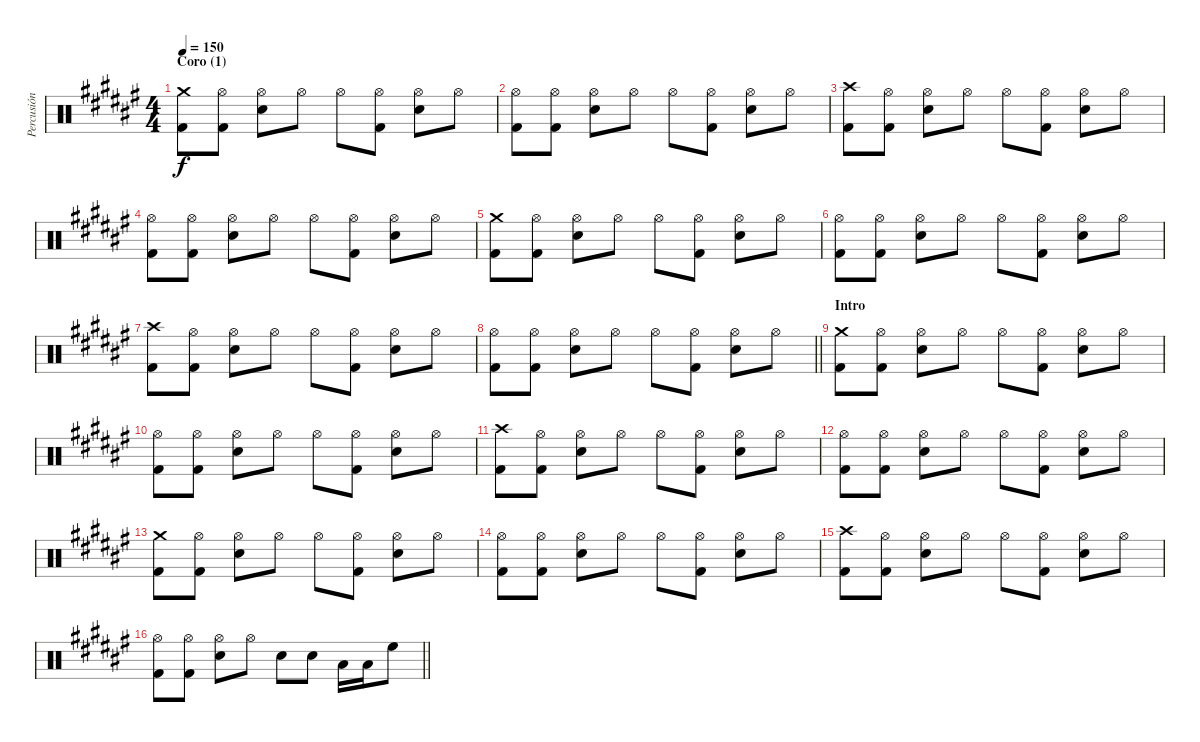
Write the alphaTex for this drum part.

\track ("Percusión" "Percusión") {instrument percussion}
\staff {score}
\articulation defaults
\ts (4 4)
\section ("" "Coro (1)")
\tempo 150
\clef neutral
\ks d#minor
("Crash medium (hit)" "Kick (hit) 2").8{dy f} ("Hi-Hat (open)" "Kick (hit) 2").8 ("Hi-Hat (open)" "Electric Snare (hit)").8 "Hi-Hat (open)".8 "Hi-Hat (open)".8 ("Hi-Hat (open)" "Kick (hit) 2").8 ("Hi-Hat (open)" "Electric Snare (hit)").8 "Hi-Hat (open)".8 |
("Hi-Hat (open)" "Kick (hit) 2").8 ("Hi-Hat (open)" "Kick (hit) 2").8 ("Hi-Hat (open)" "Electric Snare (hit)").8 "Hi-Hat (open)".8 "Hi-Hat (open)".8 ("Hi-Hat (open)" "Kick (hit) 2").8 ("Hi-Hat (open)" "Electric Snare (hit)").8 "Hi-Hat (open)".8 |
("Crash high (hit)" "Kick (hit) 2").8 ("Hi-Hat (open)" "Kick (hit) 2").8 ("Hi-Hat (open)" "Electric Snare (hit)").8 "Hi-Hat (open)".8 "Hi-Hat (open)".8 ("Hi-Hat (open)" "Kick (hit) 2").8 ("Hi-Hat (open)" "Electric Snare (hit)").8 "Hi-Hat (open)".8 |
("Hi-Hat (open)" "Kick (hit) 2").8 ("Hi-Hat (open)" "Kick (hit) 2").8 ("Hi-Hat (open)" "Electric Snare (hit)").8 "Hi-Hat (open)".8 "Hi-Hat (open)".8 ("Hi-Hat (open)" "Kick (hit) 2").8 ("Hi-Hat (open)" "Electric Snare (hit)").8 "Hi-Hat (open)".8 |
("Crash medium (hit)" "Kick (hit) 2").8 ("Hi-Hat (open)" "Kick (hit) 2").8 ("Hi-Hat (open)" "Electric Snare (hit)").8 "Hi-Hat (open)".8 "Hi-Hat (open)".8 ("Hi-Hat (open)" "Kick (hit) 2").8 ("Hi-Hat (open)" "Electric Snare (hit)").8 "Hi-Hat (open)".8 |
("Hi-Hat (open)" "Kick (hit) 2").8 ("Hi-Hat (open)" "Kick (hit) 2").8 ("Hi-Hat (open)" "Electric Snare (hit)").8 "Hi-Hat (open)".8 "Hi-Hat (open)".8 ("Hi-Hat (open)" "Kick (hit) 2").8 ("Hi-Hat (open)" "Electric Snare (hit)").8 "Hi-Hat (open)".8 |
("Crash high (hit)" "Kick (hit) 2").8 ("Hi-Hat (open)" "Kick (hit) 2").8 ("Hi-Hat (open)" "Electric Snare (hit)").8 "Hi-Hat (open)".8 "Hi-Hat (open)".8 ("Hi-Hat (open)" "Kick (hit) 2").8 ("Hi-Hat (open)" "Electric Snare (hit)").8 "Hi-Hat (open)".8 |
\barLineRight lightlight
("Hi-Hat (open)" "Kick (hit) 2").8 ("Hi-Hat (open)" "Kick (hit) 2").8 ("Hi-Hat (open)" "Electric Snare (hit)").8 "Hi-Hat (open)".8 "Hi-Hat (open)".8 ("Hi-Hat (open)" "Kick (hit) 2").8 ("Hi-Hat (open)" "Electric Snare (hit)").8 "Hi-Hat (open)".8 |
\section ("" "Intro")
("Crash medium (hit)" "Kick (hit) 2").8 ("Hi-Hat (open)" "Kick (hit) 2").8 ("Hi-Hat (open)" "Electric Snare (hit)").8 "Hi-Hat (open)".8 "Hi-Hat (open)".8 ("Hi-Hat (open)" "Kick (hit) 2").8 ("Hi-Hat (open)" "Electric Snare (hit)").8 "Hi-Hat (open)".8 |
("Hi-Hat (open)" "Kick (hit) 2").8 ("Hi-Hat (open)" "Kick (hit) 2").8 ("Hi-Hat (open)" "Electric Snare (hit)").8 "Hi-Hat (open)".8 "Hi-Hat (open)".8 ("Hi-Hat (open)" "Kick (hit) 2").8 ("Hi-Hat (open)" "Electric Snare (hit)").8 "Hi-Hat (open)".8 |
("Crash high (hit)" "Kick (hit) 2").8 ("Hi-Hat (open)" "Kick (hit) 2").8 ("Hi-Hat (open)" "Electric Snare (hit)").8 "Hi-Hat (open)".8 "Hi-Hat (open)".8 ("Hi-Hat (open)" "Kick (hit) 2").8 ("Hi-Hat (open)" "Electric Snare (hit)").8 "Hi-Hat (open)".8 |
("Hi-Hat (open)" "Kick (hit) 2").8 ("Hi-Hat (open)" "Kick (hit) 2").8 ("Hi-Hat (open)" "Electric Snare (hit)").8 "Hi-Hat (open)".8 "Hi-Hat (open)".8 ("Hi-Hat (open)" "Kick (hit) 2").8 ("Hi-Hat (open)" "Electric Snare (hit)").8 "Hi-Hat (open)".8 |
("Crash medium (hit)" "Kick (hit) 2").8 ("Hi-Hat (open)" "Kick (hit) 2").8 ("Hi-Hat (open)" "Electric Snare (hit)").8 "Hi-Hat (open)".8 "Hi-Hat (open)".8 ("Hi-Hat (open)" "Kick (hit) 2").8 ("Hi-Hat (open)" "Electric Snare (hit)").8 "Hi-Hat (open)".8 |
("Hi-Hat (open)" "Kick (hit) 2").8 ("Hi-Hat (open)" "Kick (hit) 2").8 ("Hi-Hat (open)" "Electric Snare (hit)").8 "Hi-Hat (open)".8 "Hi-Hat (open)".8 ("Hi-Hat (open)" "Kick (hit) 2").8 ("Hi-Hat (open)" "Electric Snare (hit)").8 "Hi-Hat (open)".8 |
("Crash high (hit)" "Kick (hit) 2").8 ("Hi-Hat (open)" "Kick (hit) 2").8 ("Hi-Hat (open)" "Electric Snare (hit)").8 "Hi-Hat (open)".8 "Hi-Hat (open)".8 ("Hi-Hat (open)" "Kick (hit) 2").8 ("Hi-Hat (open)" "Electric Snare (hit)").8 "Hi-Hat (open)".8 |
\barLineRight lightlight
("Hi-Hat (open)" "Kick (hit) 2").8 ("Hi-Hat (open)" "Kick (hit) 2").8 ("Hi-Hat (open)" "Electric Snare (hit)").8 "Hi-Hat (open)".8 "Electric Snare (hit)".8 "Electric Snare (hit)".8 "Low Tom (hit)".16 "Low Tom (hit)".16 "High Floor Tom (hit)".8
